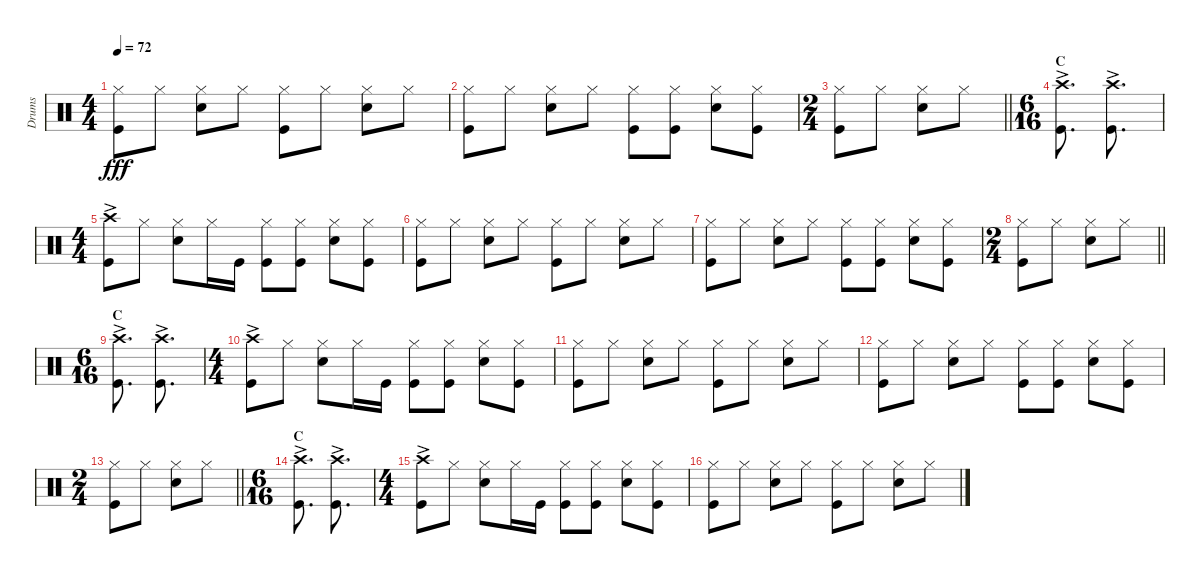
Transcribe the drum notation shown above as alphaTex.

\track ("Drums" "Drums") {instrument percussion}
\staff {score}
\articulation defaults
\ts (4 4)
\tempo 72
\clef neutral
\ks c
("Hi-Hat (closed)" "Kick (hit)").8{dy fff} "Hi-Hat (closed)".8 ("Hi-Hat (closed)" "Snare (hit) 2").8 "Hi-Hat (closed)".8 ("Hi-Hat (closed)" "Kick (hit)").8 "Hi-Hat (closed)".8 ("Hi-Hat (closed)" "Snare (hit) 2").8 "Hi-Hat (closed)".8 |
("Hi-Hat (closed)" "Kick (hit)").8 "Hi-Hat (closed)".8 ("Hi-Hat (closed)" "Snare (hit) 2").8 "Hi-Hat (closed)".8 ("Hi-Hat (closed)" "Kick (hit)").8 ("Hi-Hat (closed)" "Kick (hit)").8 ("Hi-Hat (closed)" "Snare (hit) 2").8 ("Hi-Hat (closed)" "Kick (hit)").8 |
\ts (2 4)
\barLineRight lightlight
("Hi-Hat (closed)" "Kick (hit)").8 "Hi-Hat (closed)".8 ("Hi-Hat (closed)" "Snare (hit) 2").8 "Hi-Hat (closed)".8 |
\ts (6 16)
\section ("" "C")
("Crash high (hit)"{ac} "Kick (hit)").8{d} ("Crash high (hit)"{ac} "Kick (hit)").8{d} |
\ts (4 4)
("Crash high (hit)"{ac} "Kick (hit)").8 "Hi-Hat (closed)".8 ("Hi-Hat (closed)" "Snare (hit) 2").8 "Hi-Hat (closed)".16 "Kick (hit)".16 ("Hi-Hat (closed)" "Kick (hit)").8 ("Hi-Hat (closed)" "Kick (hit)").8 ("Hi-Hat (closed)" "Snare (hit) 2").8 ("Hi-Hat (closed)" "Kick (hit)").8 |
("Hi-Hat (closed)" "Kick (hit)").8 "Hi-Hat (closed)".8 ("Hi-Hat (closed)" "Snare (hit) 2").8 "Hi-Hat (closed)".8 ("Hi-Hat (closed)" "Kick (hit)").8 "Hi-Hat (closed)".8 ("Hi-Hat (closed)" "Snare (hit) 2").8 "Hi-Hat (closed)".8 |
("Hi-Hat (closed)" "Kick (hit)").8 "Hi-Hat (closed)".8 ("Hi-Hat (closed)" "Snare (hit) 2").8 "Hi-Hat (closed)".8 ("Hi-Hat (closed)" "Kick (hit)").8 ("Hi-Hat (closed)" "Kick (hit)").8 ("Hi-Hat (closed)" "Snare (hit) 2").8 ("Hi-Hat (closed)" "Kick (hit)").8 |
\ts (2 4)
\barLineRight lightlight
("Hi-Hat (closed)" "Kick (hit)").8 "Hi-Hat (closed)".8 ("Hi-Hat (closed)" "Snare (hit) 2").8 "Hi-Hat (closed)".8 |
\ts (6 16)
\section ("" "C")
("Crash high (hit)"{ac} "Kick (hit)").8{d} ("Crash high (hit)"{ac} "Kick (hit)").8{d} |
\ts (4 4)
("Crash high (hit)"{ac} "Kick (hit)").8 "Hi-Hat (closed)".8 ("Hi-Hat (closed)" "Snare (hit) 2").8 "Hi-Hat (closed)".16 "Kick (hit)".16 ("Hi-Hat (closed)" "Kick (hit)").8 ("Hi-Hat (closed)" "Kick (hit)").8 ("Hi-Hat (closed)" "Snare (hit) 2").8 ("Hi-Hat (closed)" "Kick (hit)").8 |
("Hi-Hat (closed)" "Kick (hit)").8 "Hi-Hat (closed)".8 ("Hi-Hat (closed)" "Snare (hit) 2").8 "Hi-Hat (closed)".8 ("Hi-Hat (closed)" "Kick (hit)").8 "Hi-Hat (closed)".8 ("Hi-Hat (closed)" "Snare (hit) 2").8 "Hi-Hat (closed)".8 |
("Hi-Hat (closed)" "Kick (hit)").8 "Hi-Hat (closed)".8 ("Hi-Hat (closed)" "Snare (hit) 2").8 "Hi-Hat (closed)".8 ("Hi-Hat (closed)" "Kick (hit)").8 ("Hi-Hat (closed)" "Kick (hit)").8 ("Hi-Hat (closed)" "Snare (hit) 2").8 ("Hi-Hat (closed)" "Kick (hit)").8 |
\ts (2 4)
\barLineRight lightlight
("Hi-Hat (closed)" "Kick (hit)").8 "Hi-Hat (closed)".8 ("Hi-Hat (closed)" "Snare (hit) 2").8 "Hi-Hat (closed)".8 |
\ts (6 16)
\section ("" "C")
("Crash high (hit)"{ac} "Kick (hit)").8{d} ("Crash high (hit)"{ac} "Kick (hit)").8{d} |
\ts (4 4)
("Crash high (hit)"{ac} "Kick (hit)").8 "Hi-Hat (closed)".8 ("Hi-Hat (closed)" "Snare (hit) 2").8 "Hi-Hat (closed)".16 "Kick (hit)".16 ("Hi-Hat (closed)" "Kick (hit)").8 ("Hi-Hat (closed)" "Kick (hit)").8 ("Hi-Hat (closed)" "Snare (hit) 2").8 ("Hi-Hat (closed)" "Kick (hit)").8 |
("Hi-Hat (closed)" "Kick (hit)").8 "Hi-Hat (closed)".8 ("Hi-Hat (closed)" "Snare (hit) 2").8 "Hi-Hat (closed)".8 ("Hi-Hat (closed)" "Kick (hit)").8 "Hi-Hat (closed)".8 ("Hi-Hat (closed)" "Snare (hit) 2").8 "Hi-Hat (closed)".8
